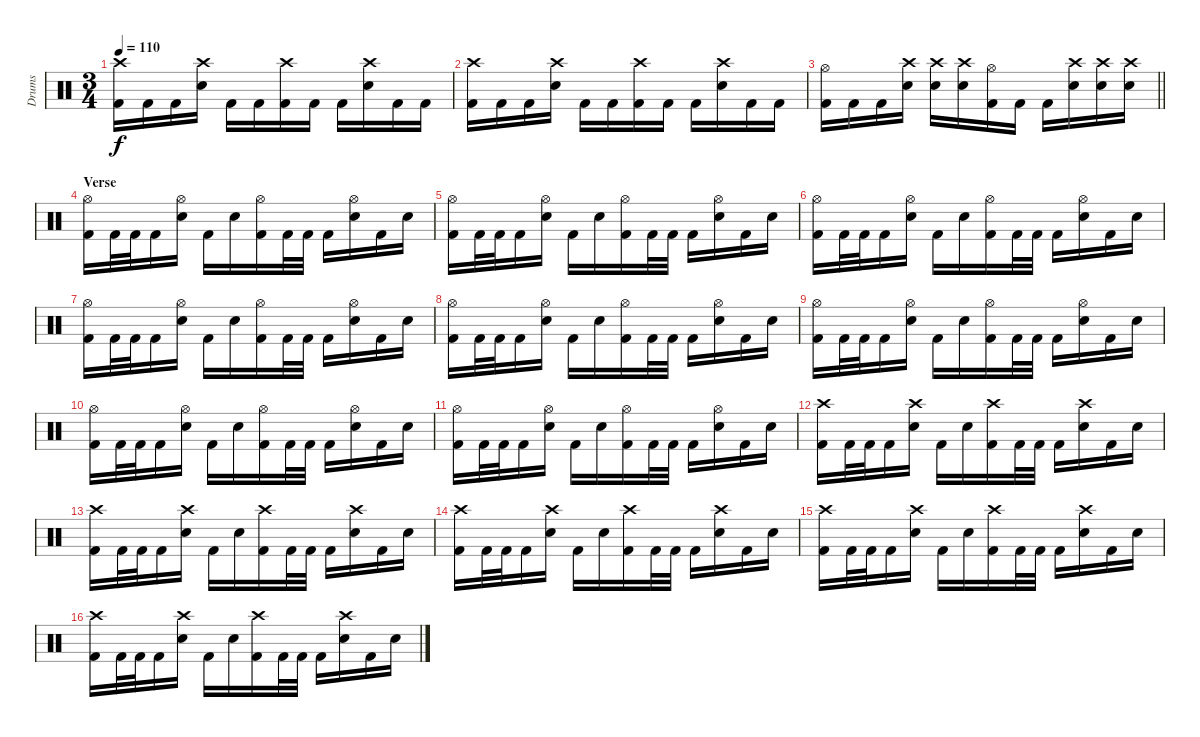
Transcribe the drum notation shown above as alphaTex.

\track ("Drums" "Drums") {instrument percussion}
\staff {score}
\articulation defaults
\ts (3 4)
\tempo 110
\clef neutral
\ks c
("Crash high (hit)" "Kick (hit) 2").16{dy f} "Kick (hit) 2".16 "Kick (hit) 2".16 ("Crash high (hit)" "Electric Snare (hit)").16 "Kick (hit) 2".16 "Kick (hit) 2".16 ("Crash high (hit)" "Kick (hit) 2").16 "Kick (hit) 2".16 "Kick (hit) 2".16 ("Crash high (hit)" "Electric Snare (hit)").16 "Kick (hit) 2".16 "Kick (hit) 2".16 |
("Crash high (hit)" "Kick (hit) 2").16 "Kick (hit) 2".16 "Kick (hit) 2".16 ("Crash high (hit)" "Electric Snare (hit)").16 "Kick (hit) 2".16 "Kick (hit) 2".16 ("Crash high (hit)" "Kick (hit) 2").16 "Kick (hit) 2".16 "Kick (hit) 2".16 ("Crash high (hit)" "Electric Snare (hit)").16 "Kick (hit) 2".16 "Kick (hit) 2".16 |
\barLineRight lightlight
("Hi-Hat (open)" "Kick (hit) 2").16 "Kick (hit) 2".16 "Kick (hit) 2".16 ("Crash high (hit)" "Electric Snare (hit)").16 ("Crash high (hit)" "Electric Snare (hit)").16 ("Crash high (hit)" "Electric Snare (hit)").16 ("Hi-Hat (open)" "Kick (hit) 2").16 "Kick (hit) 2".16 "Kick (hit) 2".16 ("Crash high (hit)" "Electric Snare (hit)").16 ("Crash high (hit)" "Electric Snare (hit)").16 ("Crash high (hit)" "Electric Snare (hit)").16 |
\section ("" "Verse")
("Hi-Hat (open)" "Kick (hit) 2").16 "Kick (hit) 2".32 "Kick (hit) 2".32 "Kick (hit) 2".16 ("Hi-Hat (open)" "Electric Snare (hit)").16 "Kick (hit) 2".16 "Electric Snare (hit)".16 ("Hi-Hat (open)" "Kick (hit) 2").16 "Kick (hit) 2".32 "Kick (hit) 2".32 "Kick (hit) 2".16 ("Hi-Hat (open)" "Electric Snare (hit)").16 "Kick (hit) 2".16 "Electric Snare (hit)".16 |
("Hi-Hat (open)" "Kick (hit) 2").16 "Kick (hit) 2".32 "Kick (hit) 2".32 "Kick (hit) 2".16 ("Hi-Hat (open)" "Electric Snare (hit)").16 "Kick (hit) 2".16 "Electric Snare (hit)".16 ("Hi-Hat (open)" "Kick (hit) 2").16 "Kick (hit) 2".32 "Kick (hit) 2".32 "Kick (hit) 2".16 ("Hi-Hat (open)" "Electric Snare (hit)").16 "Kick (hit) 2".16 "Electric Snare (hit)".16 |
("Hi-Hat (open)" "Kick (hit) 2").16 "Kick (hit) 2".32 "Kick (hit) 2".32 "Kick (hit) 2".16 ("Hi-Hat (open)" "Electric Snare (hit)").16 "Kick (hit) 2".16 "Electric Snare (hit)".16 ("Hi-Hat (open)" "Kick (hit) 2").16 "Kick (hit) 2".32 "Kick (hit) 2".32 "Kick (hit) 2".16 ("Hi-Hat (open)" "Electric Snare (hit)").16 "Kick (hit) 2".16 "Electric Snare (hit)".16 |
("Hi-Hat (open)" "Kick (hit) 2").16 "Kick (hit) 2".32 "Kick (hit) 2".32 "Kick (hit) 2".16 ("Hi-Hat (open)" "Electric Snare (hit)").16 "Kick (hit) 2".16 "Electric Snare (hit)".16 ("Hi-Hat (open)" "Kick (hit) 2").16 "Kick (hit) 2".32 "Kick (hit) 2".32 "Kick (hit) 2".16 ("Hi-Hat (open)" "Electric Snare (hit)").16 "Kick (hit) 2".16 "Electric Snare (hit)".16 |
("Hi-Hat (open)" "Kick (hit) 2").16 "Kick (hit) 2".32 "Kick (hit) 2".32 "Kick (hit) 2".16 ("Hi-Hat (open)" "Electric Snare (hit)").16 "Kick (hit) 2".16 "Electric Snare (hit)".16 ("Hi-Hat (open)" "Kick (hit) 2").16 "Kick (hit) 2".32 "Kick (hit) 2".32 "Kick (hit) 2".16 ("Hi-Hat (open)" "Electric Snare (hit)").16 "Kick (hit) 2".16 "Electric Snare (hit)".16 |
("Hi-Hat (open)" "Kick (hit) 2").16 "Kick (hit) 2".32 "Kick (hit) 2".32 "Kick (hit) 2".16 ("Hi-Hat (open)" "Electric Snare (hit)").16 "Kick (hit) 2".16 "Electric Snare (hit)".16 ("Hi-Hat (open)" "Kick (hit) 2").16 "Kick (hit) 2".32 "Kick (hit) 2".32 "Kick (hit) 2".16 ("Hi-Hat (open)" "Electric Snare (hit)").16 "Kick (hit) 2".16 "Electric Snare (hit)".16 |
("Hi-Hat (open)" "Kick (hit) 2").16 "Kick (hit) 2".32 "Kick (hit) 2".32 "Kick (hit) 2".16 ("Hi-Hat (open)" "Electric Snare (hit)").16 "Kick (hit) 2".16 "Electric Snare (hit)".16 ("Hi-Hat (open)" "Kick (hit) 2").16 "Kick (hit) 2".32 "Kick (hit) 2".32 "Kick (hit) 2".16 ("Hi-Hat (open)" "Electric Snare (hit)").16 "Kick (hit) 2".16 "Electric Snare (hit)".16 |
("Hi-Hat (open)" "Kick (hit) 2").16 "Kick (hit) 2".32 "Kick (hit) 2".32 "Kick (hit) 2".16 ("Hi-Hat (open)" "Electric Snare (hit)").16 "Kick (hit) 2".16 "Electric Snare (hit)".16 ("Hi-Hat (open)" "Kick (hit) 2").16 "Kick (hit) 2".32 "Kick (hit) 2".32 "Kick (hit) 2".16 ("Hi-Hat (open)" "Electric Snare (hit)").16 "Kick (hit) 2".16 "Electric Snare (hit)".16 |
("Crash high (hit)" "Kick (hit) 2").16 "Kick (hit) 2".32 "Kick (hit) 2".32 "Kick (hit) 2".16 ("Crash high (hit)" "Electric Snare (hit)").16 "Kick (hit) 2".16 "Electric Snare (hit)".16 ("Crash high (hit)" "Kick (hit) 2").16 "Kick (hit) 2".32 "Kick (hit) 2".32 "Kick (hit) 2".16 ("Crash high (hit)" "Electric Snare (hit)").16 "Kick (hit) 2".16 "Electric Snare (hit)".16 |
("Crash high (hit)" "Kick (hit) 2").16 "Kick (hit) 2".32 "Kick (hit) 2".32 "Kick (hit) 2".16 ("Crash high (hit)" "Electric Snare (hit)").16 "Kick (hit) 2".16 "Electric Snare (hit)".16 ("Crash high (hit)" "Kick (hit) 2").16 "Kick (hit) 2".32 "Kick (hit) 2".32 "Kick (hit) 2".16 ("Crash high (hit)" "Electric Snare (hit)").16 "Kick (hit) 2".16 "Electric Snare (hit)".16 |
("Crash high (hit)" "Kick (hit) 2").16 "Kick (hit) 2".32 "Kick (hit) 2".32 "Kick (hit) 2".16 ("Crash high (hit)" "Electric Snare (hit)").16 "Kick (hit) 2".16 "Electric Snare (hit)".16 ("Crash high (hit)" "Kick (hit) 2").16 "Kick (hit) 2".32 "Kick (hit) 2".32 "Kick (hit) 2".16 ("Crash high (hit)" "Electric Snare (hit)").16 "Kick (hit) 2".16 "Electric Snare (hit)".16 |
("Crash high (hit)" "Kick (hit) 2").16 "Kick (hit) 2".32 "Kick (hit) 2".32 "Kick (hit) 2".16 ("Crash high (hit)" "Electric Snare (hit)").16 "Kick (hit) 2".16 "Electric Snare (hit)".16 ("Crash high (hit)" "Kick (hit) 2").16 "Kick (hit) 2".32 "Kick (hit) 2".32 "Kick (hit) 2".16 ("Crash high (hit)" "Electric Snare (hit)").16 "Kick (hit) 2".16 "Electric Snare (hit)".16 |
("Crash high (hit)" "Kick (hit) 2").16 "Kick (hit) 2".32 "Kick (hit) 2".32 "Kick (hit) 2".16 ("Crash high (hit)" "Electric Snare (hit)").16 "Kick (hit) 2".16 "Electric Snare (hit)".16 ("Crash high (hit)" "Kick (hit) 2").16 "Kick (hit) 2".32 "Kick (hit) 2".32 "Kick (hit) 2".16 ("Crash high (hit)" "Electric Snare (hit)").16 "Kick (hit) 2".16 "Electric Snare (hit)".16
